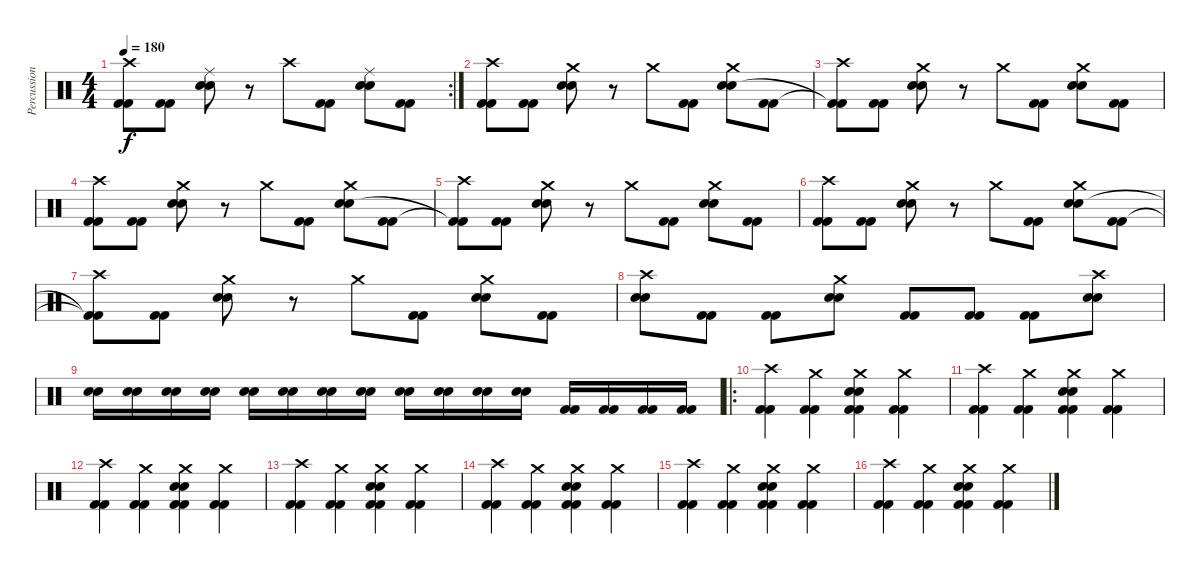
\track ("Percussion" "Percussion") {instrument percussion}
\staff {score}
\articulation defaults
\rc 2
\ts (4 4)
\tempo 180
\clef neutral
\ks c
("Crash high (hit)" "Kick (hit) 2"{t} "Kick (hit) 2"{t}).8{dy f} ("Kick (hit) 2" "Kick (hit) 2").8 ("Ride (middle)" "Snare (hit) 2" "Snare (hit) 2").8 r.8 "Crash high (hit)".8 ("Kick (hit) 2" "Kick (hit) 2").8 ("Ride (middle)" "Snare (hit) 2" "Snare (hit) 2").8 ("Kick (hit) 2" "Kick (hit) 2").8 |
("Crash high (hit)" "Kick (hit) 2" "Kick (hit) 2").8 ("Kick (hit) 2" "Kick (hit) 2").8 ("Crash medium (hit)" "Snare (hit) 2" "Snare (hit) 2").8 r.8 "Crash medium (hit)".8 ("Kick (hit) 2" "Kick (hit) 2").8 ("Crash medium (hit)" "Snare (hit) 2" "Snare (hit) 2").8 ("Kick (hit) 2" "Kick (hit) 2").8 |
("Crash high (hit)" "Kick (hit) 2"{t} "Kick (hit) 2"{t}).8 ("Kick (hit) 2" "Kick (hit) 2").8 ("Crash medium (hit)" "Snare (hit) 2" "Snare (hit) 2").8 r.8 "Crash medium (hit)".8 ("Kick (hit) 2" "Kick (hit) 2").8 ("Crash medium (hit)" "Snare (hit) 2" "Snare (hit) 2").8 ("Kick (hit) 2" "Kick (hit) 2").8 |
("Crash high (hit)" "Kick (hit) 2" "Kick (hit) 2").8 ("Kick (hit) 2" "Kick (hit) 2").8 ("Crash medium (hit)" "Snare (hit) 2" "Snare (hit) 2").8 r.8 "Crash medium (hit)".8 ("Kick (hit) 2" "Kick (hit) 2").8 ("Crash medium (hit)" "Snare (hit) 2" "Snare (hit) 2").8 ("Kick (hit) 2" "Kick (hit) 2").8 |
("Crash high (hit)" "Kick (hit) 2"{t} "Kick (hit) 2"{t}).8 ("Kick (hit) 2" "Kick (hit) 2").8 ("Crash medium (hit)" "Snare (hit) 2" "Snare (hit) 2").8 r.8 "Crash medium (hit)".8 ("Kick (hit) 2" "Kick (hit) 2").8 ("Crash medium (hit)" "Snare (hit) 2" "Snare (hit) 2").8 ("Kick (hit) 2" "Kick (hit) 2").8 |
("Crash high (hit)" "Kick (hit) 2" "Kick (hit) 2").8 ("Kick (hit) 2" "Kick (hit) 2").8 ("Crash medium (hit)" "Snare (hit) 2" "Snare (hit) 2").8 r.8 "Crash medium (hit)".8 ("Kick (hit) 2" "Kick (hit) 2").8 ("Crash medium (hit)" "Snare (hit) 2" "Snare (hit) 2").8 ("Kick (hit) 2" "Kick (hit) 2").8 |
("Crash high (hit)" "Kick (hit) 2"{t} "Kick (hit) 2"{t}).8 ("Kick (hit) 2" "Kick (hit) 2").8 ("Crash medium (hit)" "Snare (hit) 2" "Snare (hit) 2").8 r.8 "Crash medium (hit)".8 ("Kick (hit) 2" "Kick (hit) 2").8 ("Crash medium (hit)" "Snare (hit) 2" "Snare (hit) 2").8 ("Kick (hit) 2" "Kick (hit) 2").8 |
("Crash high (hit)" "Snare (hit) 2" "Snare (hit) 2").8 ("Kick (hit) 2" "Kick (hit) 2").8 ("Kick (hit) 2" "Kick (hit) 2").8 ("Crash medium (hit)" "Snare (hit) 2" "Snare (hit) 2").8 ("Kick (hit) 2" "Kick (hit) 2").8 ("Kick (hit) 2" "Kick (hit) 2").8 ("Kick (hit) 2" "Kick (hit) 2").8 ("Crash high (hit)" "Snare (hit) 2" "Snare (hit) 2").8 |
("Snare (hit) 2" "Snare (hit) 2").16 ("Snare (hit) 2" "Snare (hit) 2").16 ("Snare (hit) 2" "Snare (hit) 2").16 ("Snare (hit) 2" "Snare (hit) 2").16 ("Snare (hit) 2" "Snare (hit) 2").16 ("Snare (hit) 2" "Snare (hit) 2").16 ("Snare (hit) 2" "Snare (hit) 2").16 ("Snare (hit) 2" "Snare (hit) 2").16 ("Snare (hit) 2" "Snare (hit) 2").16 ("Snare (hit) 2" "Snare (hit) 2").16 ("Snare (hit) 2" "Snare (hit) 2").16 ("Snare (hit) 2" "Snare (hit) 2").16 ("Kick (hit) 2" "Kick (hit) 2").16 ("Kick (hit) 2" "Kick (hit) 2").16 ("Kick (hit) 2" "Kick (hit) 2").16 ("Kick (hit) 2" "Kick (hit) 2").16 |
\ro
("Crash high (hit)" "Kick (hit) 2" "Kick (hit) 2").4 ("Crash medium (hit)" "Kick (hit) 2" "Kick (hit) 2").4 ("Crash medium (hit)" "Kick (hit) 2" "Kick (hit) 2" "Snare (hit) 2" "Snare (hit) 2").4 ("Crash medium (hit)" "Kick (hit) 2" "Kick (hit) 2").4 |
("Crash high (hit)" "Kick (hit) 2" "Kick (hit) 2").4 ("Crash medium (hit)" "Kick (hit) 2" "Kick (hit) 2").4 ("Crash medium (hit)" "Kick (hit) 2" "Kick (hit) 2" "Snare (hit) 2" "Snare (hit) 2").4 ("Crash medium (hit)" "Kick (hit) 2" "Kick (hit) 2").4 |
("Crash high (hit)" "Kick (hit) 2" "Kick (hit) 2").4 ("Crash medium (hit)" "Kick (hit) 2" "Kick (hit) 2").4 ("Crash medium (hit)" "Kick (hit) 2" "Kick (hit) 2" "Snare (hit) 2" "Snare (hit) 2").4 ("Crash medium (hit)" "Kick (hit) 2" "Kick (hit) 2").4 |
("Crash high (hit)" "Kick (hit) 2" "Kick (hit) 2").4 ("Crash medium (hit)" "Kick (hit) 2" "Kick (hit) 2").4 ("Crash medium (hit)" "Kick (hit) 2" "Kick (hit) 2" "Snare (hit) 2" "Snare (hit) 2").4 ("Crash medium (hit)" "Kick (hit) 2" "Kick (hit) 2").4 |
("Crash high (hit)" "Kick (hit) 2" "Kick (hit) 2").4 ("Crash medium (hit)" "Kick (hit) 2" "Kick (hit) 2").4 ("Crash medium (hit)" "Kick (hit) 2" "Kick (hit) 2" "Snare (hit) 2" "Snare (hit) 2").4 ("Crash medium (hit)" "Kick (hit) 2" "Kick (hit) 2").4 |
("Crash high (hit)" "Kick (hit) 2" "Kick (hit) 2").4 ("Crash medium (hit)" "Kick (hit) 2" "Kick (hit) 2").4 ("Crash medium (hit)" "Kick (hit) 2" "Kick (hit) 2" "Snare (hit) 2" "Snare (hit) 2").4 ("Crash medium (hit)" "Kick (hit) 2" "Kick (hit) 2").4 |
("Crash high (hit)" "Kick (hit) 2" "Kick (hit) 2").4 ("Crash medium (hit)" "Kick (hit) 2" "Kick (hit) 2").4 ("Crash medium (hit)" "Kick (hit) 2" "Kick (hit) 2" "Snare (hit) 2" "Snare (hit) 2").4 ("Crash medium (hit)" "Kick (hit) 2" "Kick (hit) 2").4
